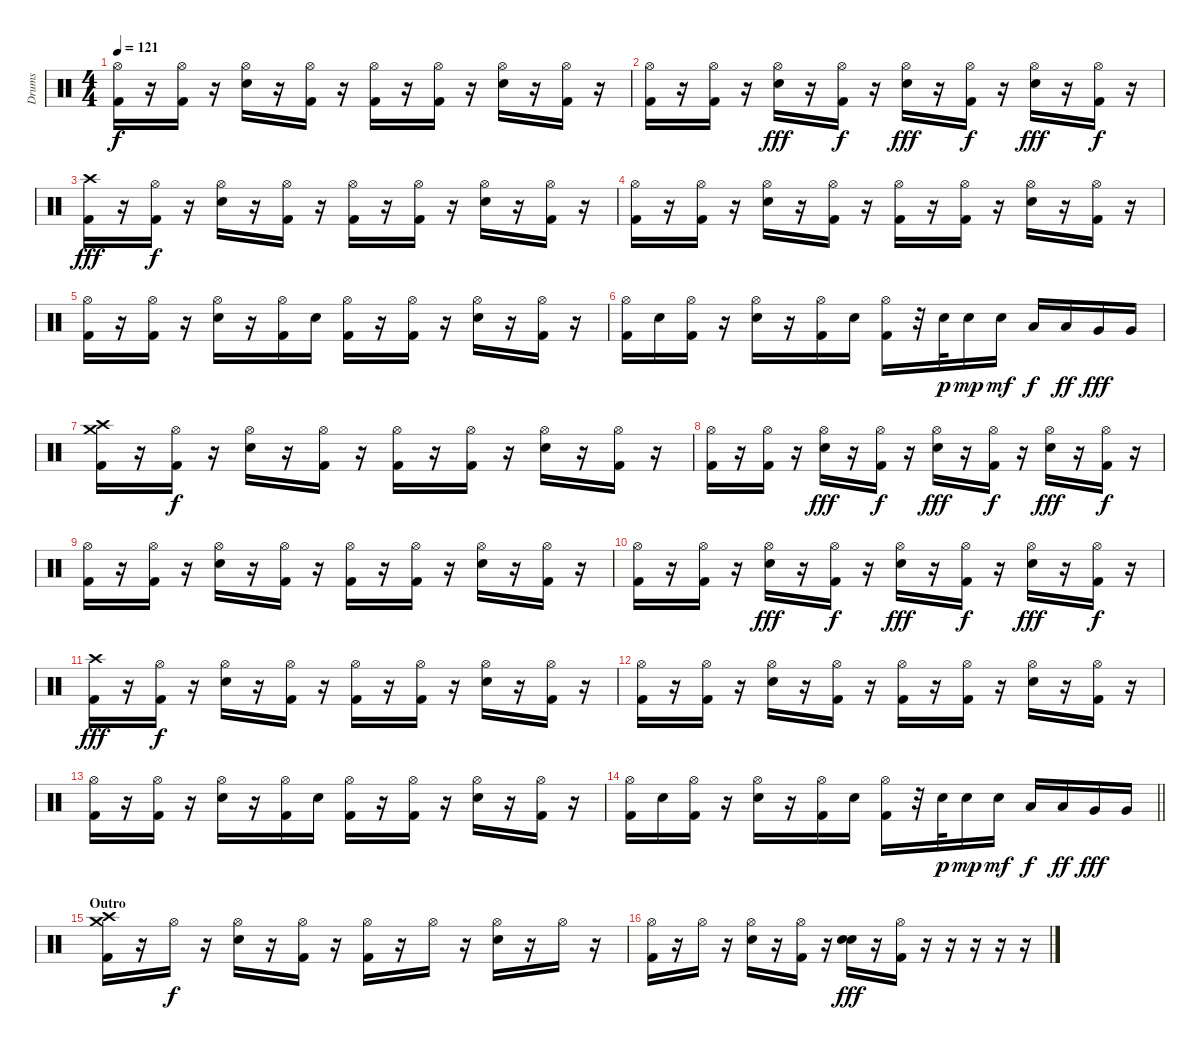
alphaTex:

\track ("Drums" "Drums") {instrument percussion}
\staff {score}
\articulation defaults
\ts (4 4)
\tempo 121
\clef neutral
\ks c
("Hi-Hat (open)" "Kick (hit) 2").16{dy f} r.16 ("Hi-Hat (open)" "Kick (hit) 2").16 r.16 ("Hi-Hat (open)" "Electric Snare (hit)").16 r.16 ("Hi-Hat (open)" "Kick (hit) 2").16 r.16 ("Hi-Hat (open)" "Kick (hit) 2").16 r.16 ("Hi-Hat (open)" "Kick (hit) 2").16 r.16 ("Hi-Hat (open)" "Electric Snare (hit)").16 r.16 ("Hi-Hat (open)" "Kick (hit) 2").16 r.16 |
("Hi-Hat (open)" "Kick (hit) 2").16 r.16 ("Hi-Hat (open)" "Kick (hit) 2").16 r.16 ("Hi-Hat (open)" "Electric Snare (hit)").16{dy fff} r.16 ("Hi-Hat (open)" "Kick (hit) 2").16{dy f} r.16 ("Hi-Hat (open)" "Electric Snare (hit)").16{dy fff} r.16 ("Hi-Hat (open)" "Kick (hit) 2").16{dy f} r.16 ("Hi-Hat (open)" "Electric Snare (hit)").16{dy fff} r.16 ("Hi-Hat (open)" "Kick (hit) 2").16{dy f} r.16 |
("Crash high (hit)" "Kick (hit) 2").16{dy fff} r.16 ("Hi-Hat (open)" "Kick (hit) 2").16{dy f} r.16 ("Hi-Hat (open)" "Electric Snare (hit)").16 r.16 ("Hi-Hat (open)" "Kick (hit) 2").16 r.16 ("Hi-Hat (open)" "Kick (hit) 2").16 r.16 ("Hi-Hat (open)" "Kick (hit) 2").16 r.16 ("Hi-Hat (open)" "Electric Snare (hit)").16 r.16 ("Hi-Hat (open)" "Kick (hit) 2").16 r.16 |
("Hi-Hat (open)" "Kick (hit) 2").16 r.16 ("Hi-Hat (open)" "Kick (hit) 2").16 r.16 ("Hi-Hat (open)" "Electric Snare (hit)").16 r.16 ("Hi-Hat (open)" "Kick (hit) 2").16 r.16 ("Hi-Hat (open)" "Kick (hit) 2").16 r.16 ("Hi-Hat (open)" "Kick (hit) 2").16 r.16 ("Hi-Hat (open)" "Electric Snare (hit)").16 r.16 ("Hi-Hat (open)" "Kick (hit) 2").16 r.16 |
("Hi-Hat (open)" "Kick (hit) 2").16 r.16 ("Hi-Hat (open)" "Kick (hit) 2").16 r.16 ("Hi-Hat (open)" "Electric Snare (hit)").16 r.16 ("Hi-Hat (open)" "Kick (hit) 2").16 "Electric Snare (hit)".16 ("Hi-Hat (open)" "Kick (hit) 2").16 r.16 ("Hi-Hat (open)" "Kick (hit) 2").16 r.16 ("Hi-Hat (open)" "Electric Snare (hit)").16 r.16 ("Hi-Hat (open)" "Kick (hit) 2").16 r.16 |
("Hi-Hat (open)" "Kick (hit) 2").16 "Electric Snare (hit)".16 ("Hi-Hat (open)" "Kick (hit) 2").16 r.16 ("Hi-Hat (open)" "Electric Snare (hit)").16 r.16 ("Hi-Hat (open)" "Kick (hit) 2").16 "Electric Snare (hit)".16 ("Hi-Hat (open)" "Kick (hit) 2").16 r.32 "Electric Snare (hit)".32{dy p} "Electric Snare (hit)".16{dy mp} "Electric Snare (hit)".16{dy mf} "Low Tom (hit)".16{dy f} "Low Tom (hit)".16{dy ff} "Very Low Tom (hit)".16{dy fff} "Very Low Tom (hit)".16 |
("Crash high (hit)" "Crash medium (hit)" "Kick (hit) 2").16 r.16 ("Hi-Hat (open)" "Kick (hit) 2").16{dy f} r.16 ("Hi-Hat (open)" "Electric Snare (hit)").16 r.16 ("Hi-Hat (open)" "Kick (hit) 2").16 r.16 ("Hi-Hat (open)" "Kick (hit) 2").16 r.16 ("Hi-Hat (open)" "Kick (hit) 2").16 r.16 ("Hi-Hat (open)" "Electric Snare (hit)").16 r.16 ("Hi-Hat (open)" "Kick (hit) 2").16 r.16 |
("Hi-Hat (open)" "Kick (hit) 2").16 r.16 ("Hi-Hat (open)" "Kick (hit) 2").16 r.16 ("Hi-Hat (open)" "Electric Snare (hit)").16{dy fff} r.16 ("Hi-Hat (open)" "Kick (hit) 2").16{dy f} r.16 ("Hi-Hat (open)" "Electric Snare (hit)").16{dy fff} r.16 ("Hi-Hat (open)" "Kick (hit) 2").16{dy f} r.16 ("Hi-Hat (open)" "Electric Snare (hit)").16{dy fff} r.16 ("Hi-Hat (open)" "Kick (hit) 2").16{dy f} r.16 |
("Hi-Hat (open)" "Kick (hit) 2").16 r.16 ("Hi-Hat (open)" "Kick (hit) 2").16 r.16 ("Hi-Hat (open)" "Electric Snare (hit)").16 r.16 ("Hi-Hat (open)" "Kick (hit) 2").16 r.16 ("Hi-Hat (open)" "Kick (hit) 2").16 r.16 ("Hi-Hat (open)" "Kick (hit) 2").16 r.16 ("Hi-Hat (open)" "Electric Snare (hit)").16 r.16 ("Hi-Hat (open)" "Kick (hit) 2").16 r.16 |
("Hi-Hat (open)" "Kick (hit) 2").16 r.16 ("Hi-Hat (open)" "Kick (hit) 2").16 r.16 ("Hi-Hat (open)" "Electric Snare (hit)").16{dy fff} r.16 ("Hi-Hat (open)" "Kick (hit) 2").16{dy f} r.16 ("Hi-Hat (open)" "Electric Snare (hit)").16{dy fff} r.16 ("Hi-Hat (open)" "Kick (hit) 2").16{dy f} r.16 ("Hi-Hat (open)" "Electric Snare (hit)").16{dy fff} r.16 ("Hi-Hat (open)" "Kick (hit) 2").16{dy f} r.16 |
("Crash high (hit)" "Kick (hit) 2").16{dy fff} r.16 ("Hi-Hat (open)" "Kick (hit) 2").16{dy f} r.16 ("Hi-Hat (open)" "Electric Snare (hit)").16 r.16 ("Hi-Hat (open)" "Kick (hit) 2").16 r.16 ("Hi-Hat (open)" "Kick (hit) 2").16 r.16 ("Hi-Hat (open)" "Kick (hit) 2").16 r.16 ("Hi-Hat (open)" "Electric Snare (hit)").16 r.16 ("Hi-Hat (open)" "Kick (hit) 2").16 r.16 |
("Hi-Hat (open)" "Kick (hit) 2").16 r.16 ("Hi-Hat (open)" "Kick (hit) 2").16 r.16 ("Hi-Hat (open)" "Electric Snare (hit)").16 r.16 ("Hi-Hat (open)" "Kick (hit) 2").16 r.16 ("Hi-Hat (open)" "Kick (hit) 2").16 r.16 ("Hi-Hat (open)" "Kick (hit) 2").16 r.16 ("Hi-Hat (open)" "Electric Snare (hit)").16 r.16 ("Hi-Hat (open)" "Kick (hit) 2").16 r.16 |
("Hi-Hat (open)" "Kick (hit) 2").16 r.16 ("Hi-Hat (open)" "Kick (hit) 2").16 r.16 ("Hi-Hat (open)" "Electric Snare (hit)").16 r.16 ("Hi-Hat (open)" "Kick (hit) 2").16 "Electric Snare (hit)".16 ("Hi-Hat (open)" "Kick (hit) 2").16 r.16 ("Hi-Hat (open)" "Kick (hit) 2").16 r.16 ("Hi-Hat (open)" "Electric Snare (hit)").16 r.16 ("Hi-Hat (open)" "Kick (hit) 2").16 r.16 |
\barLineRight lightlight
("Hi-Hat (open)" "Kick (hit) 2").16 "Electric Snare (hit)".16 ("Hi-Hat (open)" "Kick (hit) 2").16 r.16 ("Hi-Hat (open)" "Electric Snare (hit)").16 r.16 ("Hi-Hat (open)" "Kick (hit) 2").16 "Electric Snare (hit)".16 ("Hi-Hat (open)" "Kick (hit) 2").16 r.32 "Electric Snare (hit)".32{dy p} "Electric Snare (hit)".16{dy mp} "Electric Snare (hit)".16{dy mf} "Low Tom (hit)".16{dy f} "Low Tom (hit)".16{dy ff} "Very Low Tom (hit)".16{dy fff} "Very Low Tom (hit)".16 |
\section ("" "Outro")
("Crash high (hit)" "Crash medium (hit)" "Kick (hit) 2").16 r.16 "Hi-Hat (open)".16{dy f} r.16 ("Hi-Hat (open)" "Electric Snare (hit)").16 r.16 ("Hi-Hat (open)" "Kick (hit) 2").16 r.16 ("Hi-Hat (open)" "Kick (hit) 2").16 r.16 "Hi-Hat (open)".16 r.16 ("Hi-Hat (open)" "Electric Snare (hit)").16 r.16 "Hi-Hat (open)".16 r.16 |
("Hi-Hat (open)" "Kick (hit) 2").16 r.16 "Hi-Hat (open)".16 r.16 ("Hi-Hat (open)" "Electric Snare (hit)").16 r.16 ("Hi-Hat (open)" "Kick (hit) 2").16 r.16 ("Electric Snare (hit)" "Electric Snare (hit)").16{dy fff} r.16 ("Hi-Hat (open)" "Kick (hit) 2").16 r.16 r.16 r.16 r.16 r.16
